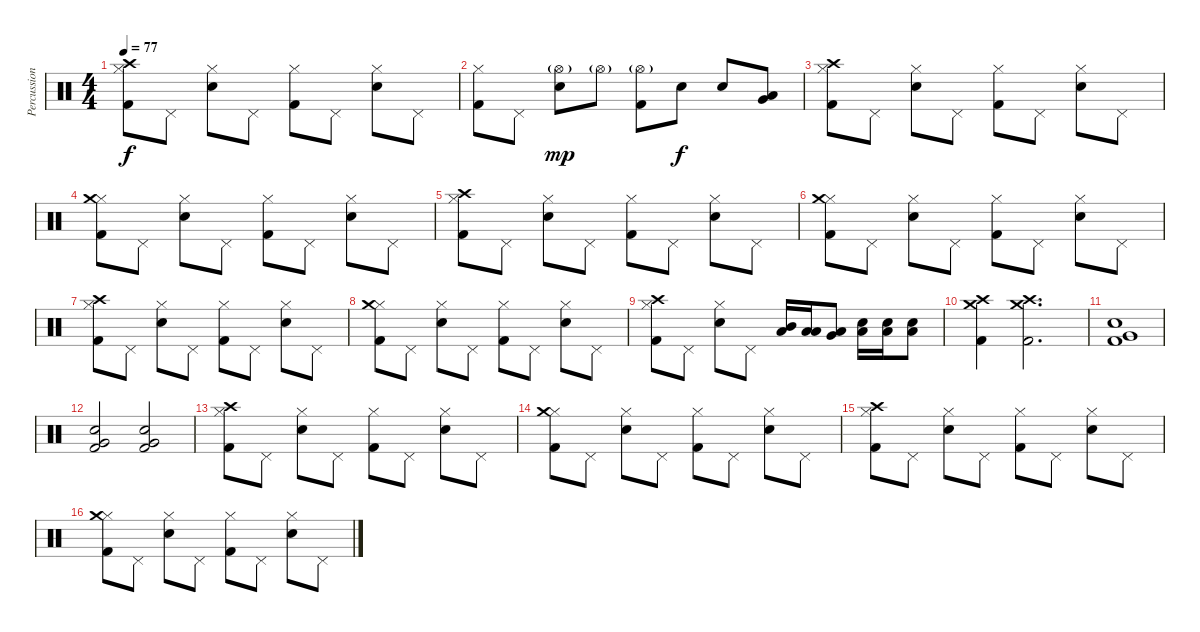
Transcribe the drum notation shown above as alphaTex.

\track ("Percussions" "Percussion") {instrument percussion}
\staff {score}
\articulation defaults
\ts (4 4)
\tempo 77
\clef neutral
\ks c
("Hi-Hat (closed)" "Crash high (hit)" "Kick (hit) 2").8{dy f} "Pedal Hi-Hat (hit)".8 ("Hi-Hat (closed)" "Snare (hit) 2").8 "Pedal Hi-Hat (hit)".8 ("Hi-Hat (closed)" "Kick (hit) 2").8 "Pedal Hi-Hat (hit)".8 ("Hi-Hat (closed)" "Snare (hit) 2").8 "Pedal Hi-Hat (hit)".8 |
("Hi-Hat (closed)" "Kick (hit) 2").8 "Pedal Hi-Hat (hit)".8 ("Hi-Hat (open)"{g} "Snare (hit) 2").8{dy mp} "Hi-Hat (open)"{g}.8 ("Hi-Hat (open)"{g} "Kick (hit) 2").8 "Snare (hit) 2".8{dy f} "Snare (hit) 2".8 ("Very Low Tom (hit)" "Low Tom (hit)").8 |
("Hi-Hat (closed)" "Crash high (hit)" "Kick (hit) 2").8 "Pedal Hi-Hat (hit)".8 ("Hi-Hat (closed)" "Snare (hit) 2").8 "Pedal Hi-Hat (hit)".8 ("Hi-Hat (closed)" "Kick (hit) 2").8 "Pedal Hi-Hat (hit)".8 ("Hi-Hat (closed)" "Snare (hit) 2").8 "Pedal Hi-Hat (hit)".8 |
("Hi-Hat (closed)" "Crash medium (hit)" "Kick (hit) 2").8 "Pedal Hi-Hat (hit)".8 ("Hi-Hat (closed)" "Snare (hit) 2").8 "Pedal Hi-Hat (hit)".8 ("Hi-Hat (closed)" "Kick (hit) 2").8 "Pedal Hi-Hat (hit)".8 ("Hi-Hat (closed)" "Snare (hit) 2").8 "Pedal Hi-Hat (hit)".8 |
("Hi-Hat (closed)" "Crash high (hit)" "Kick (hit) 2").8 "Pedal Hi-Hat (hit)".8 ("Hi-Hat (closed)" "Snare (hit) 2").8 "Pedal Hi-Hat (hit)".8 ("Hi-Hat (closed)" "Kick (hit) 2").8 "Pedal Hi-Hat (hit)".8 ("Hi-Hat (closed)" "Snare (hit) 2").8 "Pedal Hi-Hat (hit)".8 |
("Hi-Hat (closed)" "Crash medium (hit)" "Kick (hit) 2").8 "Pedal Hi-Hat (hit)".8 ("Hi-Hat (closed)" "Snare (hit) 2").8 "Pedal Hi-Hat (hit)".8 ("Hi-Hat (closed)" "Kick (hit) 2").8 "Pedal Hi-Hat (hit)".8 ("Hi-Hat (closed)" "Snare (hit) 2").8 "Pedal Hi-Hat (hit)".8 |
("Hi-Hat (closed)" "Crash high (hit)" "Kick (hit) 2").8 "Pedal Hi-Hat (hit)".8 ("Hi-Hat (closed)" "Snare (hit) 2").8 "Pedal Hi-Hat (hit)".8 ("Hi-Hat (closed)" "Kick (hit) 2").8 "Pedal Hi-Hat (hit)".8 ("Hi-Hat (closed)" "Snare (hit) 2").8 "Pedal Hi-Hat (hit)".8 |
("Hi-Hat (closed)" "Crash medium (hit)" "Kick (hit) 2").8 "Pedal Hi-Hat (hit)".8 ("Hi-Hat (closed)" "Snare (hit) 2").8 "Pedal Hi-Hat (hit)".8 ("Hi-Hat (closed)" "Kick (hit) 2").8 "Pedal Hi-Hat (hit)".8 ("Hi-Hat (closed)" "Snare (hit) 2").8 "Pedal Hi-Hat (hit)".8 |
("Hi-Hat (closed)" "Crash high (hit)" "Kick (hit) 2").8 "Pedal Hi-Hat (hit)".8 ("Hi-Hat (closed)" "Snare (hit) 2").8 "Pedal Hi-Hat (hit)".8 ("Mid Tom (hit)" "Low Floor Tom (hit)").16 ("Low Tom (hit)" "Low Floor Tom (hit)").16 ("Very Low Tom (hit)" "Low Floor Tom (hit)").8 ("Snare (hit) 2" "Low Floor Tom (hit)").16 ("Snare (hit) 2" "Low Floor Tom (hit)").16 ("Snare (hit) 2" "Low Floor Tom (hit)").8 |
("Crash medium (hit)" "Crash high (hit)" "Kick (hit) 2").4 ("Crash medium (hit)" "Crash high (hit)" "Kick (hit) 2").2{d} |
("Very Low Tom (hit)" "Snare (hit) 2" "Kick (hit) 2").1 |
("Very Low Tom (hit)" "Snare (hit) 2" "Kick (hit) 2").2 ("Very Low Tom (hit)" "Snare (hit) 2" "Kick (hit) 2").2 |
("Hi-Hat (closed)" "Crash high (hit)" "Kick (hit) 2").8 "Pedal Hi-Hat (hit)".8 ("Hi-Hat (closed)" "Snare (hit) 2").8 "Pedal Hi-Hat (hit)".8 ("Hi-Hat (closed)" "Kick (hit) 2").8 "Pedal Hi-Hat (hit)".8 ("Hi-Hat (closed)" "Snare (hit) 2").8 "Pedal Hi-Hat (hit)".8 |
("Hi-Hat (closed)" "Crash medium (hit)" "Kick (hit) 2").8 "Pedal Hi-Hat (hit)".8 ("Hi-Hat (closed)" "Snare (hit) 2").8 "Pedal Hi-Hat (hit)".8 ("Hi-Hat (closed)" "Kick (hit) 2").8 "Pedal Hi-Hat (hit)".8 ("Hi-Hat (closed)" "Snare (hit) 2").8 "Pedal Hi-Hat (hit)".8 |
("Hi-Hat (closed)" "Crash high (hit)" "Kick (hit) 2").8 "Pedal Hi-Hat (hit)".8 ("Hi-Hat (closed)" "Snare (hit) 2").8 "Pedal Hi-Hat (hit)".8 ("Hi-Hat (closed)" "Kick (hit) 2").8 "Pedal Hi-Hat (hit)".8 ("Hi-Hat (closed)" "Snare (hit) 2").8 "Pedal Hi-Hat (hit)".8 |
("Hi-Hat (closed)" "Crash medium (hit)" "Kick (hit) 2").8 "Pedal Hi-Hat (hit)".8 ("Hi-Hat (closed)" "Snare (hit) 2").8 "Pedal Hi-Hat (hit)".8 ("Hi-Hat (closed)" "Kick (hit) 2").8 "Pedal Hi-Hat (hit)".8 ("Hi-Hat (closed)" "Snare (hit) 2").8 "Pedal Hi-Hat (hit)".8
